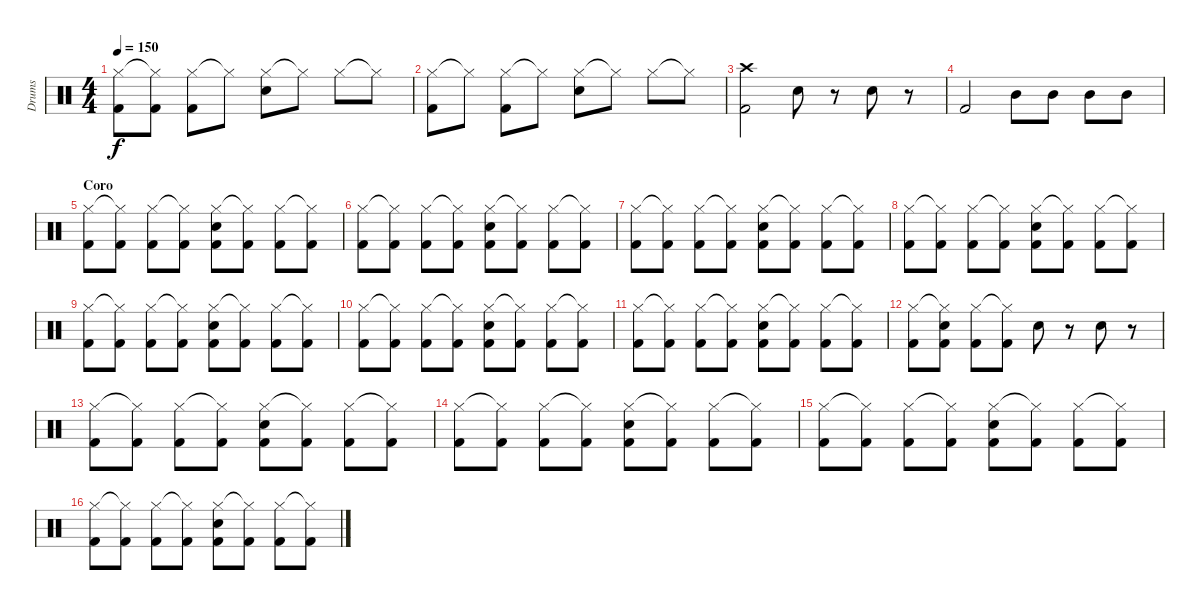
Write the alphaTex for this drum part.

\track ("Drums" "Drums") {instrument percussion}
\staff {score}
\articulation defaults
\ts (4 4)
\tempo 150
\clef neutral
\ks c
("Hi-Hat (closed)" "Kick (hit) 2").8{dy f} ("Hi-Hat (closed)"{t} "Kick (hit) 2").8 ("Hi-Hat (closed)" "Kick (hit) 2").8 "Hi-Hat (closed)"{t}.8 ("Hi-Hat (closed)" "Snare (hit) 2").8 "Hi-Hat (closed)"{t}.8 "Hi-Hat (closed)".8 "Hi-Hat (closed)"{t}.8 |
("Hi-Hat (closed)" "Kick (hit) 2").8 "Hi-Hat (closed)"{t}.8 ("Hi-Hat (closed)" "Kick (hit) 2").8 "Hi-Hat (closed)"{t}.8 ("Hi-Hat (closed)" "Snare (hit) 2").8 "Hi-Hat (closed)"{t}.8 "Hi-Hat (closed)".8 "Hi-Hat (closed)"{t}.8 |
("Kick (hit) 2" "Crash high (hit)").2 "Snare (hit) 2".8 r.8 "Snare (hit) 2".8 r.8 |
"Kick (hit) 2".2 "Mid Tom (hit)".8 "Mid Tom (hit)".8 "Mid Tom (hit)".8 "Mid Tom (hit)".8 |
\section ("" "Coro")
("Hi-Hat (closed)" "Kick (hit) 2").8 ("Hi-Hat (closed)"{t} "Kick (hit) 2").8 ("Hi-Hat (closed)" "Kick (hit) 2").8 ("Hi-Hat (closed)"{t} "Kick (hit) 2").8 ("Hi-Hat (closed)" "Kick (hit) 2" "Snare (hit) 2").8 ("Hi-Hat (closed)"{t} "Kick (hit) 2").8 ("Hi-Hat (closed)" "Kick (hit) 2").8 ("Hi-Hat (closed)"{t} "Kick (hit) 2").8 |
("Hi-Hat (closed)" "Kick (hit) 2").8 ("Hi-Hat (closed)"{t} "Kick (hit) 2").8 ("Hi-Hat (closed)" "Kick (hit) 2").8 ("Hi-Hat (closed)"{t} "Kick (hit) 2").8 ("Hi-Hat (closed)" "Kick (hit) 2" "Snare (hit) 2").8 ("Hi-Hat (closed)"{t} "Kick (hit) 2").8 ("Hi-Hat (closed)" "Kick (hit) 2").8 ("Hi-Hat (closed)"{t} "Kick (hit) 2").8 |
("Hi-Hat (closed)" "Kick (hit) 2").8 ("Hi-Hat (closed)"{t} "Kick (hit) 2").8 ("Hi-Hat (closed)" "Kick (hit) 2").8 ("Hi-Hat (closed)"{t} "Kick (hit) 2").8 ("Hi-Hat (closed)" "Kick (hit) 2" "Snare (hit) 2").8 ("Hi-Hat (closed)"{t} "Kick (hit) 2").8 ("Hi-Hat (closed)" "Kick (hit) 2").8 ("Hi-Hat (closed)"{t} "Kick (hit) 2").8 |
("Hi-Hat (closed)" "Kick (hit) 2").8 ("Hi-Hat (closed)"{t} "Kick (hit) 2").8 ("Hi-Hat (closed)" "Kick (hit) 2").8 ("Hi-Hat (closed)"{t} "Kick (hit) 2").8 ("Hi-Hat (closed)" "Kick (hit) 2" "Snare (hit) 2").8 ("Hi-Hat (closed)"{t} "Kick (hit) 2").8 ("Hi-Hat (closed)" "Kick (hit) 2").8 ("Hi-Hat (closed)"{t} "Kick (hit) 2").8 |
("Hi-Hat (closed)" "Kick (hit) 2").8 ("Hi-Hat (closed)"{t} "Kick (hit) 2").8 ("Hi-Hat (closed)" "Kick (hit) 2").8 ("Hi-Hat (closed)"{t} "Kick (hit) 2").8 ("Hi-Hat (closed)" "Kick (hit) 2" "Snare (hit) 2").8 ("Hi-Hat (closed)"{t} "Kick (hit) 2").8 ("Hi-Hat (closed)" "Kick (hit) 2").8 ("Hi-Hat (closed)"{t} "Kick (hit) 2").8 |
("Hi-Hat (closed)" "Kick (hit) 2").8 ("Hi-Hat (closed)"{t} "Kick (hit) 2").8 ("Hi-Hat (closed)" "Kick (hit) 2").8 ("Hi-Hat (closed)"{t} "Kick (hit) 2").8 ("Hi-Hat (closed)" "Kick (hit) 2" "Snare (hit) 2").8 ("Hi-Hat (closed)"{t} "Kick (hit) 2").8 ("Hi-Hat (closed)" "Kick (hit) 2").8 ("Hi-Hat (closed)"{t} "Kick (hit) 2").8 |
("Hi-Hat (closed)" "Kick (hit) 2").8 ("Hi-Hat (closed)"{t} "Kick (hit) 2").8 ("Hi-Hat (closed)" "Kick (hit) 2").8 ("Hi-Hat (closed)"{t} "Kick (hit) 2").8 ("Hi-Hat (closed)" "Kick (hit) 2" "Snare (hit) 2").8 ("Hi-Hat (closed)"{t} "Kick (hit) 2").8 ("Hi-Hat (closed)" "Kick (hit) 2").8 ("Hi-Hat (closed)"{t} "Kick (hit) 2").8 |
("Hi-Hat (closed)" "Kick (hit) 2").8 ("Hi-Hat (closed)"{t} "Kick (hit) 2" "Snare (hit) 2").8 ("Hi-Hat (closed)" "Kick (hit) 2").8 ("Hi-Hat (closed)"{t} "Kick (hit) 2").8 "Snare (hit) 2".8 r.8 "Snare (hit) 2".8 r.8 |
("Hi-Hat (closed)" "Kick (hit) 2").8 ("Hi-Hat (closed)"{t} "Kick (hit) 2").8 ("Hi-Hat (closed)" "Kick (hit) 2").8 ("Hi-Hat (closed)"{t} "Kick (hit) 2").8 ("Hi-Hat (closed)" "Kick (hit) 2" "Snare (hit) 2").8 ("Hi-Hat (closed)"{t} "Kick (hit) 2").8 ("Hi-Hat (closed)" "Kick (hit) 2").8 ("Hi-Hat (closed)"{t} "Kick (hit) 2").8 |
("Hi-Hat (closed)" "Kick (hit) 2").8 ("Hi-Hat (closed)"{t} "Kick (hit) 2").8 ("Hi-Hat (closed)" "Kick (hit) 2").8 ("Hi-Hat (closed)"{t} "Kick (hit) 2").8 ("Hi-Hat (closed)" "Kick (hit) 2" "Snare (hit) 2").8 ("Hi-Hat (closed)"{t} "Kick (hit) 2").8 ("Hi-Hat (closed)" "Kick (hit) 2").8 ("Hi-Hat (closed)"{t} "Kick (hit) 2").8 |
("Hi-Hat (closed)" "Kick (hit) 2").8 ("Hi-Hat (closed)"{t} "Kick (hit) 2").8 ("Hi-Hat (closed)" "Kick (hit) 2").8 ("Hi-Hat (closed)"{t} "Kick (hit) 2").8 ("Hi-Hat (closed)" "Kick (hit) 2" "Snare (hit) 2").8 ("Hi-Hat (closed)"{t} "Kick (hit) 2").8 ("Hi-Hat (closed)" "Kick (hit) 2").8 ("Hi-Hat (closed)"{t} "Kick (hit) 2").8 |
("Hi-Hat (closed)" "Kick (hit) 2").8 ("Hi-Hat (closed)"{t} "Kick (hit) 2").8 ("Hi-Hat (closed)" "Kick (hit) 2").8 ("Hi-Hat (closed)"{t} "Kick (hit) 2").8 ("Hi-Hat (closed)" "Kick (hit) 2" "Snare (hit) 2").8 ("Hi-Hat (closed)"{t} "Kick (hit) 2").8 ("Hi-Hat (closed)" "Kick (hit) 2").8 ("Hi-Hat (closed)"{t} "Kick (hit) 2").8
